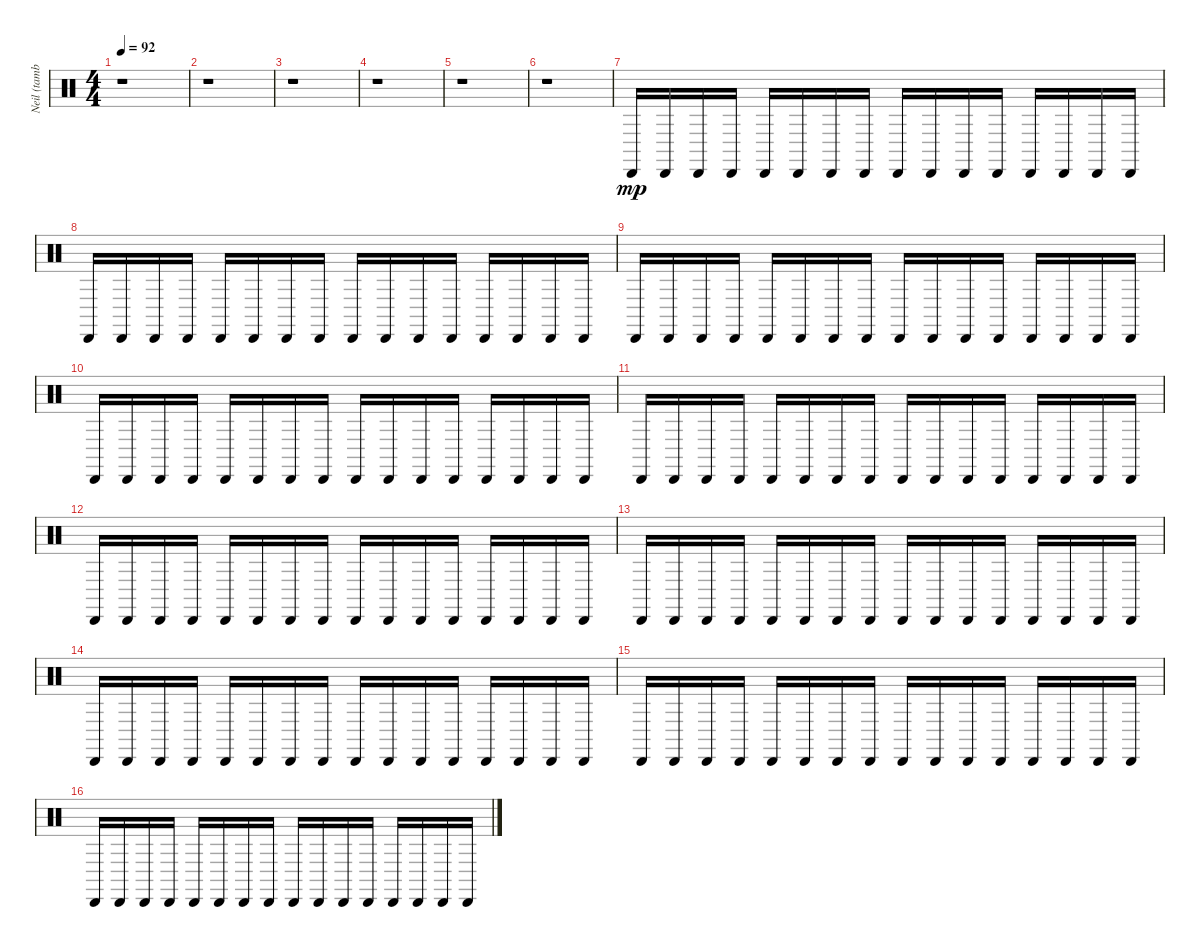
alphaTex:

\track ("Neil (tambourine)" "Neil (tamb") {instrument percussion}
\staff {score}
\articulation defaults
\ts (4 4)
\tempo 92
\clef neutral
\ks c
r.1{dy mp} |
r.1 |
r.1 |
r.1 |
r.1 |
r.1 |
"Cabasa (hit)".16 "Cabasa (hit)".16 "Cabasa (hit)".16 "Cabasa (hit)".16 "Cabasa (hit)".16 "Cabasa (hit)".16 "Cabasa (hit)".16 "Cabasa (hit)".16 "Cabasa (hit)".16 "Cabasa (hit)".16 "Cabasa (hit)".16 "Cabasa (hit)".16 "Cabasa (hit)".16 "Cabasa (hit)".16 "Cabasa (hit)".16 "Cabasa (hit)".16 |
"Cabasa (hit)".16 "Cabasa (hit)".16 "Cabasa (hit)".16 "Cabasa (hit)".16 "Cabasa (hit)".16 "Cabasa (hit)".16 "Cabasa (hit)".16 "Cabasa (hit)".16 "Cabasa (hit)".16 "Cabasa (hit)".16 "Cabasa (hit)".16 "Cabasa (hit)".16 "Cabasa (hit)".16 "Cabasa (hit)".16 "Cabasa (hit)".16 "Cabasa (hit)".16 |
"Cabasa (hit)".16 "Cabasa (hit)".16 "Cabasa (hit)".16 "Cabasa (hit)".16 "Cabasa (hit)".16 "Cabasa (hit)".16 "Cabasa (hit)".16 "Cabasa (hit)".16 "Cabasa (hit)".16 "Cabasa (hit)".16 "Cabasa (hit)".16 "Cabasa (hit)".16 "Cabasa (hit)".16 "Cabasa (hit)".16 "Cabasa (hit)".16 "Cabasa (hit)".16 |
"Cabasa (hit)".16 "Cabasa (hit)".16 "Cabasa (hit)".16 "Cabasa (hit)".16 "Cabasa (hit)".16 "Cabasa (hit)".16 "Cabasa (hit)".16 "Cabasa (hit)".16 "Cabasa (hit)".16 "Cabasa (hit)".16 "Cabasa (hit)".16 "Cabasa (hit)".16 "Cabasa (hit)".16 "Cabasa (hit)".16 "Cabasa (hit)".16 "Cabasa (hit)".16 |
"Cabasa (hit)".16 "Cabasa (hit)".16 "Cabasa (hit)".16 "Cabasa (hit)".16 "Cabasa (hit)".16 "Cabasa (hit)".16 "Cabasa (hit)".16 "Cabasa (hit)".16 "Cabasa (hit)".16 "Cabasa (hit)".16 "Cabasa (hit)".16 "Cabasa (hit)".16 "Cabasa (hit)".16 "Cabasa (hit)".16 "Cabasa (hit)".16 "Cabasa (hit)".16 |
"Cabasa (hit)".16 "Cabasa (hit)".16 "Cabasa (hit)".16 "Cabasa (hit)".16 "Cabasa (hit)".16 "Cabasa (hit)".16 "Cabasa (hit)".16 "Cabasa (hit)".16 "Cabasa (hit)".16 "Cabasa (hit)".16 "Cabasa (hit)".16 "Cabasa (hit)".16 "Cabasa (hit)".16 "Cabasa (hit)".16 "Cabasa (hit)".16 "Cabasa (hit)".16 |
"Cabasa (hit)".16 "Cabasa (hit)".16 "Cabasa (hit)".16 "Cabasa (hit)".16 "Cabasa (hit)".16 "Cabasa (hit)".16 "Cabasa (hit)".16 "Cabasa (hit)".16 "Cabasa (hit)".16 "Cabasa (hit)".16 "Cabasa (hit)".16 "Cabasa (hit)".16 "Cabasa (hit)".16 "Cabasa (hit)".16 "Cabasa (hit)".16 "Cabasa (hit)".16 |
"Cabasa (hit)".16 "Cabasa (hit)".16 "Cabasa (hit)".16 "Cabasa (hit)".16 "Cabasa (hit)".16 "Cabasa (hit)".16 "Cabasa (hit)".16 "Cabasa (hit)".16 "Cabasa (hit)".16 "Cabasa (hit)".16 "Cabasa (hit)".16 "Cabasa (hit)".16 "Cabasa (hit)".16 "Cabasa (hit)".16 "Cabasa (hit)".16 "Cabasa (hit)".16 |
"Cabasa (hit)".16 "Cabasa (hit)".16 "Cabasa (hit)".16 "Cabasa (hit)".16 "Cabasa (hit)".16 "Cabasa (hit)".16 "Cabasa (hit)".16 "Cabasa (hit)".16 "Cabasa (hit)".16 "Cabasa (hit)".16 "Cabasa (hit)".16 "Cabasa (hit)".16 "Cabasa (hit)".16 "Cabasa (hit)".16 "Cabasa (hit)".16 "Cabasa (hit)".16 |
"Cabasa (hit)".16 "Cabasa (hit)".16 "Cabasa (hit)".16 "Cabasa (hit)".16 "Cabasa (hit)".16 "Cabasa (hit)".16 "Cabasa (hit)".16 "Cabasa (hit)".16 "Cabasa (hit)".16 "Cabasa (hit)".16 "Cabasa (hit)".16 "Cabasa (hit)".16 "Cabasa (hit)".16 "Cabasa (hit)".16 "Cabasa (hit)".16 "Cabasa (hit)".16
